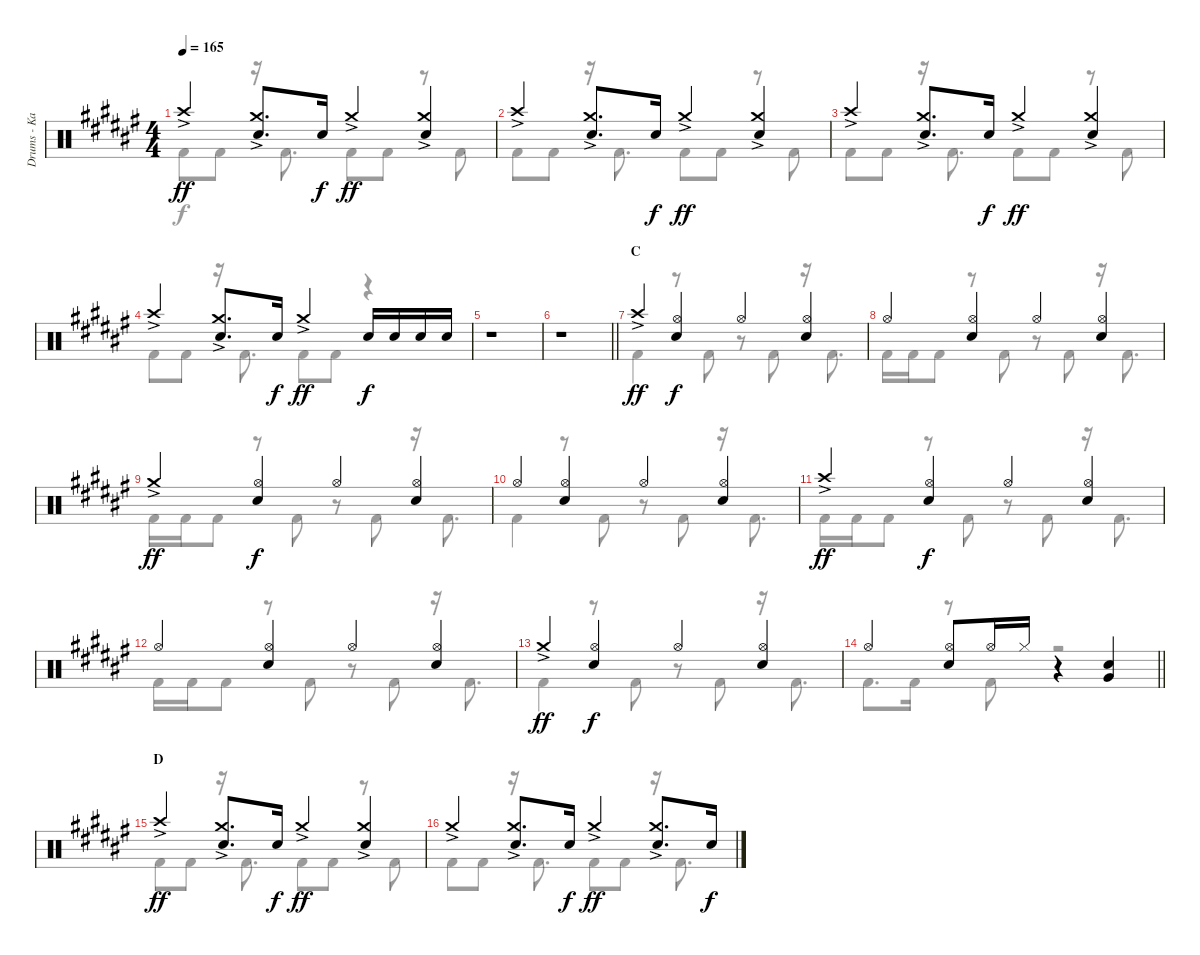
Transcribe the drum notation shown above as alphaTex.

\track ("Drums - Kai" "Drums - Ka") {instrument percussion}
\staff {score}
\articulation defaults
\voice
\ts (4 4)
\tempo 165
\clef neutral
\ks f# "Crash high (hit)"{ac}.4{dy ff}
("Crash medium (hit)"{ac} "Electric Snare (hit)").8{d} "Electric Snare (hit)".16{dy f} "Crash medium (hit)"{ac}.4{dy ff} ("Crash medium (hit)"{ac} "Electric Snare (hit)").4 |
"Crash high (hit)"{ac}.4 ("Crash medium (hit)"{ac} "Electric Snare (hit)").8{d} "Electric Snare (hit)".16{dy f} "Crash medium (hit)"{ac}.4{dy ff} ("Crash medium (hit)"{ac} "Electric Snare (hit)").4 |
"Crash high (hit)"{ac}.4 ("Crash medium (hit)"{ac} "Electric Snare (hit)").8{d} "Electric Snare (hit)".16{dy f} "Crash medium (hit)"{ac}.4{dy ff} ("Crash medium (hit)"{ac} "Electric Snare (hit)").4 |
"Crash high (hit)"{ac}.4 ("Crash medium (hit)"{ac} "Electric Snare (hit)").8{d} "Electric Snare (hit)".16{dy f} "Crash medium (hit)"{ac}.4{dy ff} "Electric Snare (hit)".16{dy f} "Electric Snare (hit)".16 "Electric Snare (hit)".16 "Electric Snare (hit)".16 |
r.1 |
\barLineRight lightlight
r.1 |
\section ("" "C")
"Crash high (hit)"{ac}.4{dy ff} ("Hi-Hat (open)" "Electric Snare (hit)").4{dy f} "Hi-Hat (open)".4 ("Hi-Hat (open)" "Electric Snare (hit)").4 |
"Hi-Hat (open)".4 ("Hi-Hat (open)" "Electric Snare (hit)").4 "Hi-Hat (open)".4 ("Hi-Hat (open)" "Electric Snare (hit)").4 |
"Crash medium (hit)"{ac}.4{dy ff} ("Hi-Hat (open)" "Electric Snare (hit)").4{dy f} "Hi-Hat (open)".4 ("Hi-Hat (open)" "Electric Snare (hit)").4 |
"Hi-Hat (open)".4 ("Hi-Hat (open)" "Electric Snare (hit)").4 "Hi-Hat (open)".4 ("Hi-Hat (open)" "Electric Snare (hit)").4 |
"Crash high (hit)"{ac}.4{dy ff} ("Hi-Hat (open)" "Electric Snare (hit)").4{dy f} "Hi-Hat (open)".4 ("Hi-Hat (open)" "Electric Snare (hit)").4 |
"Hi-Hat (open)".4 ("Hi-Hat (open)" "Electric Snare (hit)").4 "Hi-Hat (open)".4 ("Hi-Hat (open)" "Electric Snare (hit)").4 |
"Crash medium (hit)"{ac}.4{dy ff} ("Hi-Hat (open)" "Electric Snare (hit)").4{dy f} "Hi-Hat (open)".4 ("Hi-Hat (open)" "Electric Snare (hit)").4 |
\barLineRight lightlight "Hi-Hat (open)".4
("Hi-Hat (open)" "Electric Snare (hit)").8 "Hi-Hat (open)".16 "Hi-Hat (closed)".16 r.4 ("Very Low Tom (hit)" "Electric Snare (hit)").4 |
\section ("" "D")
"Crash high (hit)"{ac}.4{dy ff} ("Crash medium (hit)"{ac} "Electric Snare (hit)").8{d} "Electric Snare (hit)".16{dy f} "Crash medium (hit)"{ac}.4{dy ff} ("Crash medium (hit)"{ac} "Electric Snare (hit)").4 |
"Crash medium (hit)"{ac}.4 ("Crash medium (hit)"{ac} "Electric Snare (hit)").8{d} "Electric Snare (hit)".16{dy f} "Crash medium (hit)"{ac}.4{dy ff} ("Crash medium (hit)"{ac} "Electric Snare (hit)").8{d} "Electric Snare (hit)".16{dy f}
\voice
\clef neutral
\ottava regular
\simile none
\ks f# "Kick (hit) 2".8{dy f} "Kick (hit) 2".8
r.16 "Kick (hit) 2".8{d} "Kick (hit) 2".8 "Kick (hit) 2".8 r.8 "Kick (hit) 2".8 |
"Kick (hit) 2".8 "Kick (hit) 2".8 r.16 "Kick (hit) 2".8{d} "Kick (hit) 2".8 "Kick (hit) 2".8 r.8 "Kick (hit) 2".8 |
"Kick (hit) 2".8 "Kick (hit) 2".8 r.16 "Kick (hit) 2".8{d} "Kick (hit) 2".8 "Kick (hit) 2".8 r.8 "Kick (hit) 2".8 |
"Kick (hit) 2".8 "Kick (hit) 2".8 r.16 "Kick (hit) 2".8{d} "Kick (hit) 2".8 "Kick (hit) 2".8 r.4 |
|
\barLineRight lightlight
|
"Kick (hit) 2".4 r.8 "Kick (hit) 2".8 r.8 "Kick (hit) 2".8 r.16 "Kick (hit) 2".8{d} |
"Kick (hit) 2".16 "Kick (hit) 2".16 "Kick (hit) 2".8 r.8 "Kick (hit) 2".8 r.8 "Kick (hit) 2".8 r.16 "Kick (hit) 2".8{d} |
"Kick (hit) 2".16 "Kick (hit) 2".16 "Kick (hit) 2".8 r.8 "Kick (hit) 2".8 r.8 "Kick (hit) 2".8 r.16 "Kick (hit) 2".8{d} |
"Kick (hit) 2".4 r.8 "Kick (hit) 2".8 r.8 "Kick (hit) 2".8 r.16 "Kick (hit) 2".8{d} |
"Kick (hit) 2".16 "Kick (hit) 2".16 "Kick (hit) 2".8 r.8 "Kick (hit) 2".8 r.8 "Kick (hit) 2".8 r.16 "Kick (hit) 2".8{d} |
"Kick (hit) 2".16 "Kick (hit) 2".16 "Kick (hit) 2".8 r.8 "Kick (hit) 2".8 r.8 "Kick (hit) 2".8 r.16 "Kick (hit) 2".8{d} |
"Kick (hit) 2".4 r.8 "Kick (hit) 2".8 r.8 "Kick (hit) 2".8 r.16 "Kick (hit) 2".8{d} |
\barLineRight lightlight "Kick (hit) 2".8{d} "Kick (hit) 2".16
r.8 "Kick (hit) 2".8 r.2 |
"Kick (hit) 2".8 "Kick (hit) 2".8 r.16 "Kick (hit) 2".8{d} "Kick (hit) 2".8 "Kick (hit) 2".8 r.8 "Kick (hit) 2".8 |
"Kick (hit) 2".8 "Kick (hit) 2".8 r.16 "Kick (hit) 2".8{d} "Kick (hit) 2".8 "Kick (hit) 2".8 r.16 "Kick (hit) 2".8{d}
